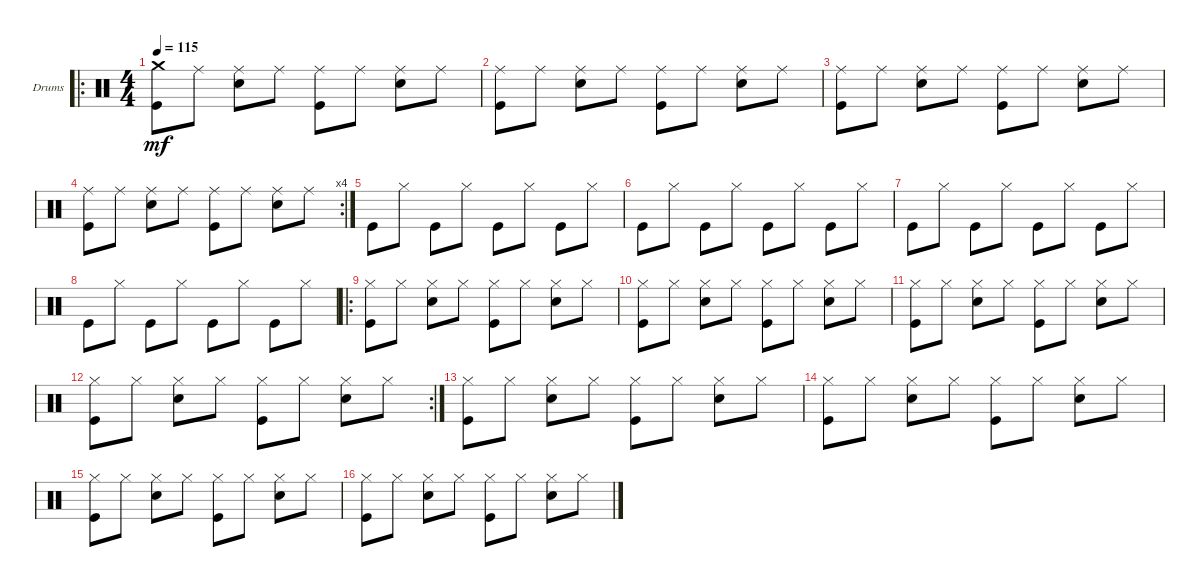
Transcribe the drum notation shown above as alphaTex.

\defaultSystemsLayout 4
\bracketExtendMode groupsimilarinstruments
\firstSystemTrackNameOrientation horizontal
\otherSystemsTrackNameOrientation horizontal
\track ("Drumkit" "Drums") {instrument percussion}
\staff {score}
\articulation defaults
\ro
\ts (4 4)
\tempo 115
\clef neutral
\ks c
("Kick (hit)" "Crash medium (hit)").8{dy mf} "Ride (middle)".8 ("Snare (hit) 2" "Ride (middle)").8 "Ride (middle)".8 ("Ride (middle)" "Kick (hit)").8 "Ride (middle)".8 ("Snare (hit) 2" "Ride (middle)").8 "Ride (middle)".8 |
("Kick (hit)" "Ride (middle)").8 "Ride (middle)".8 ("Snare (hit) 2" "Ride (middle)").8 "Ride (middle)".8 ("Ride (middle)" "Kick (hit)").8 "Ride (middle)".8 ("Snare (hit) 2" "Ride (middle)").8 "Ride (middle)".8 |
("Kick (hit)" "Ride (middle)").8 "Ride (middle)".8 ("Snare (hit) 2" "Ride (middle)").8 "Ride (middle)".8 ("Ride (middle)" "Kick (hit)").8 "Ride (middle)".8 ("Snare (hit) 2" "Ride (middle)").8 "Ride (middle)".8 |
\rc 4
("Kick (hit)" "Ride (middle)").8 "Ride (middle)".8 ("Snare (hit) 2" "Ride (middle)").8 "Ride (middle)".8 ("Ride (middle)" "Kick (hit)").8 "Ride (middle)".8 ("Snare (hit) 2" "Ride (middle)").8 "Ride (middle)".8 |
"Kick (hit)".8 "Hi-Hat (closed)".8 "Kick (hit)".8 "Hi-Hat (closed)".8 "Kick (hit)".8 "Hi-Hat (closed)".8 "Kick (hit)".8 "Hi-Hat (closed)".8 |
"Kick (hit)".8 "Hi-Hat (closed)".8 "Kick (hit)".8 "Hi-Hat (closed)".8 "Kick (hit)".8 "Hi-Hat (closed)".8 "Kick (hit)".8 "Hi-Hat (closed)".8 |
"Kick (hit)".8 "Hi-Hat (closed)".8 "Kick (hit)".8 "Hi-Hat (closed)".8 "Kick (hit)".8 "Hi-Hat (closed)".8 "Kick (hit)".8 "Hi-Hat (closed)".8 |
"Kick (hit)".8 "Hi-Hat (closed)".8 "Kick (hit)".8 "Hi-Hat (closed)".8 "Kick (hit)".8 "Hi-Hat (closed)".8 "Kick (hit)".8 "Hi-Hat (closed)".8 |
\ro
("Kick (hit)" "Hi-Hat (closed)").8 "Hi-Hat (closed)".8 ("Snare (hit) 2" "Hi-Hat (closed)").8 "Hi-Hat (closed)".8 ("Kick (hit)" "Hi-Hat (closed)").8 "Hi-Hat (closed)".8 ("Snare (hit) 2" "Hi-Hat (closed)").8 "Hi-Hat (closed)".8 |
("Kick (hit)" "Hi-Hat (closed)").8 "Hi-Hat (closed)".8 ("Snare (hit) 2" "Hi-Hat (closed)").8 "Hi-Hat (closed)".8 ("Kick (hit)" "Hi-Hat (closed)").8 "Hi-Hat (closed)".8 ("Snare (hit) 2" "Hi-Hat (closed)").8 "Hi-Hat (closed)".8 |
("Kick (hit)" "Hi-Hat (closed)").8 "Hi-Hat (closed)".8 ("Snare (hit) 2" "Hi-Hat (closed)").8 "Hi-Hat (closed)".8 ("Kick (hit)" "Hi-Hat (closed)").8 "Hi-Hat (closed)".8 ("Snare (hit) 2" "Hi-Hat (closed)").8 "Hi-Hat (closed)".8 |
\rc 2
("Kick (hit)" "Hi-Hat (closed)").8 "Hi-Hat (closed)".8 ("Snare (hit) 2" "Hi-Hat (closed)").8 "Hi-Hat (closed)".8 ("Kick (hit)" "Hi-Hat (closed)").8 "Hi-Hat (closed)".8 ("Snare (hit) 2" "Hi-Hat (closed)").8 "Hi-Hat (closed)".8 |
("Kick (hit)" "Hi-Hat (closed)").8 "Hi-Hat (closed)".8 ("Snare (hit) 2" "Hi-Hat (closed)").8 "Hi-Hat (closed)".8 ("Kick (hit)" "Hi-Hat (closed)").8 "Hi-Hat (closed)".8 ("Snare (hit) 2" "Hi-Hat (closed)").8 "Hi-Hat (closed)".8 |
("Kick (hit)" "Hi-Hat (closed)").8 "Hi-Hat (closed)".8 ("Snare (hit) 2" "Hi-Hat (closed)").8 "Hi-Hat (closed)".8 ("Kick (hit)" "Hi-Hat (closed)").8 "Hi-Hat (closed)".8 ("Snare (hit) 2" "Hi-Hat (closed)").8 "Hi-Hat (closed)".8 |
("Kick (hit)" "Hi-Hat (closed)").8 "Hi-Hat (closed)".8 ("Snare (hit) 2" "Hi-Hat (closed)").8 "Hi-Hat (closed)".8 ("Kick (hit)" "Hi-Hat (closed)").8 "Hi-Hat (closed)".8 ("Snare (hit) 2" "Hi-Hat (closed)").8 "Hi-Hat (closed)".8 |
("Kick (hit)" "Hi-Hat (closed)").8 "Hi-Hat (closed)".8 ("Snare (hit) 2" "Hi-Hat (closed)").8 "Hi-Hat (closed)".8 ("Kick (hit)" "Hi-Hat (closed)").8 "Hi-Hat (closed)".8 ("Snare (hit) 2" "Hi-Hat (closed)").8 "Hi-Hat (closed)".8
